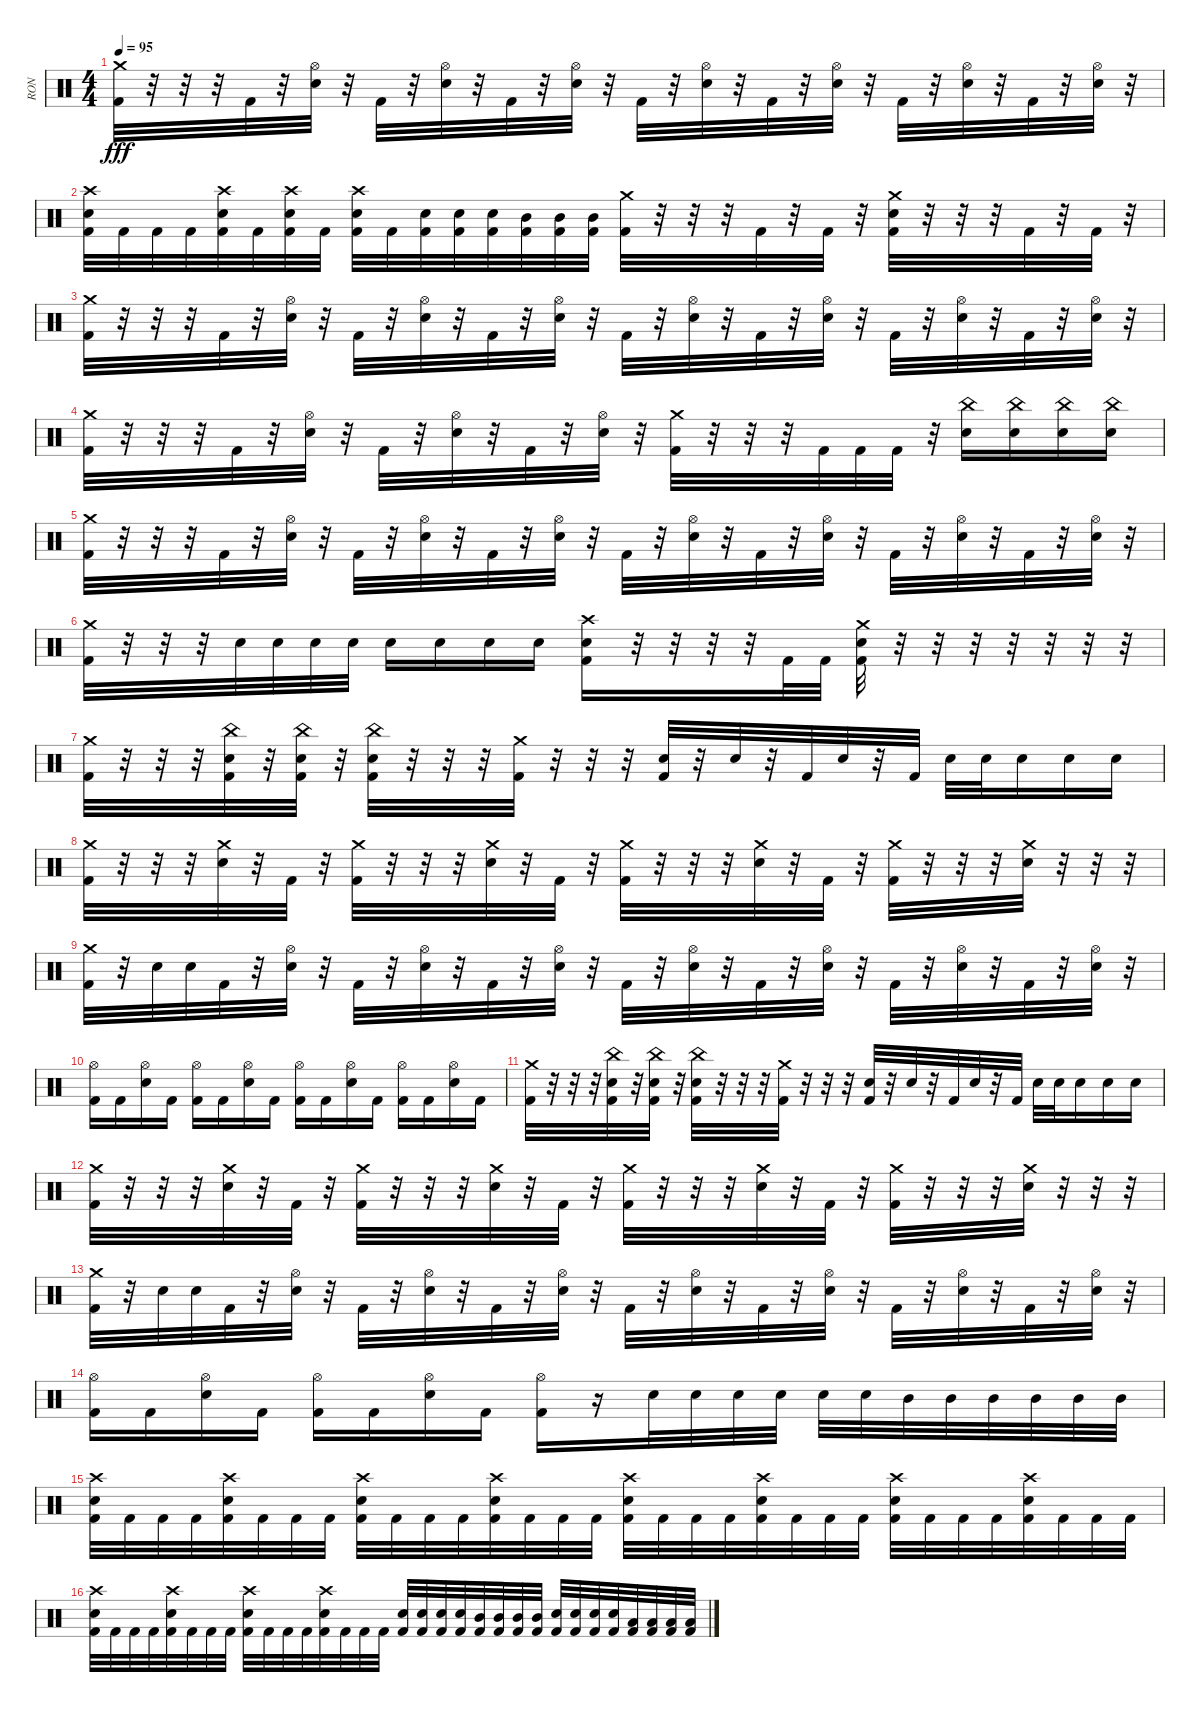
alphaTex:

\track ("RON" "RON") {instrument percussion}
\staff {score}
\articulation defaults
\ts (4 4)
\tempo 95
\clef neutral
\ks c
("Crash medium (hit)" "Kick (hit) 2").32{dy fff} r.32 r.32 r.32 "Kick (hit) 2".32 r.32 ("Hi-Hat (open)" "Electric Snare (hit)").32 r.32 "Kick (hit) 2".32 r.32 ("Hi-Hat (open)" "Electric Snare (hit)").32 r.32 "Kick (hit) 2".32 r.32 ("Hi-Hat (open)" "Electric Snare (hit)").32 r.32 "Kick (hit) 2".32 r.32 ("Hi-Hat (open)" "Electric Snare (hit)").32 r.32 "Kick (hit) 2".32 r.32 ("Hi-Hat (open)" "Electric Snare (hit)").32 r.32 "Kick (hit) 2".32 r.32 ("Hi-Hat (open)" "Electric Snare (hit)").32 r.32 "Kick (hit) 2".32 r.32 ("Hi-Hat (open)" "Electric Snare (hit)").32 r.32 |
("Crash high (hit)" "Electric Snare (hit)" "Kick (hit) 2").32 "Kick (hit) 2".32 "Kick (hit) 2".32 "Kick (hit) 2".32 ("Crash high (hit)" "Electric Snare (hit)" "Kick (hit) 2").32 "Kick (hit) 2".32 ("Crash high (hit)" "Electric Snare (hit)" "Kick (hit) 2").32 "Kick (hit) 2".32 ("Crash high (hit)" "Electric Snare (hit)" "Kick (hit) 2").32 "Kick (hit) 2".32 ("Electric Snare (hit)" "Kick (hit) 2").32 ("Electric Snare (hit)" "Kick (hit) 2").32 ("Electric Snare (hit)" "Kick (hit) 2").32 ("Mid Tom (hit)" "Kick (hit) 2").32 ("Mid Tom (hit)" "Kick (hit) 2").32 ("Mid Tom (hit)" "Kick (hit) 2").32 ("Crash medium (hit)" "Kick (hit) 2").32 r.32 r.32 r.32 "Kick (hit) 2".32 r.32 "Kick (hit) 2".32 r.32 ("Crash medium (hit)" "Electric Snare (hit)" "Kick (hit) 2").32 r.32 r.32 r.32 "Kick (hit) 2".32 r.32 "Kick (hit) 2".32 r.32 |
("Crash medium (hit)" "Kick (hit) 2").32 r.32 r.32 r.32 "Kick (hit) 2".32 r.32 ("Hi-Hat (open)" "Electric Snare (hit)").32 r.32 "Kick (hit) 2".32 r.32 ("Hi-Hat (open)" "Electric Snare (hit)").32 r.32 "Kick (hit) 2".32 r.32 ("Hi-Hat (open)" "Electric Snare (hit)").32 r.32 "Kick (hit) 2".32 r.32 ("Hi-Hat (open)" "Electric Snare (hit)").32 r.32 "Kick (hit) 2".32 r.32 ("Hi-Hat (open)" "Electric Snare (hit)").32 r.32 "Kick (hit) 2".32 r.32 ("Hi-Hat (open)" "Electric Snare (hit)").32 r.32 "Kick (hit) 2".32 r.32 ("Hi-Hat (open)" "Electric Snare (hit)").32 r.32 |
("Crash medium (hit)" "Kick (hit) 2").32 r.32 r.32 r.32 "Kick (hit) 2".32 r.32 ("Hi-Hat (open)" "Electric Snare (hit)").32 r.32 "Kick (hit) 2".32 r.32 ("Hi-Hat (open)" "Electric Snare (hit)").32 r.32 "Kick (hit) 2".32 r.32 ("Hi-Hat (open)" "Electric Snare (hit)").32 r.32 ("Crash medium (hit)" "Kick (hit) 2").32 r.32 r.32 r.32 "Kick (hit) 2".32 "Kick (hit) 2".32 "Kick (hit) 2".32 r.32 ("China (hit)" "Electric Snare (hit)").16 ("China (hit)" "Electric Snare (hit)").16 ("China (hit)" "Electric Snare (hit)").16 ("China (hit)" "Electric Snare (hit)").16 |
("Crash medium (hit)" "Kick (hit) 2").32 r.32 r.32 r.32 "Kick (hit) 2".32 r.32 ("Hi-Hat (open)" "Electric Snare (hit)").32 r.32 "Kick (hit) 2".32 r.32 ("Hi-Hat (open)" "Electric Snare (hit)").32 r.32 "Kick (hit) 2".32 r.32 ("Hi-Hat (open)" "Electric Snare (hit)").32 r.32 "Kick (hit) 2".32 r.32 ("Hi-Hat (open)" "Electric Snare (hit)").32 r.32 "Kick (hit) 2".32 r.32 ("Hi-Hat (open)" "Electric Snare (hit)").32 r.32 "Kick (hit) 2".32 r.32 ("Hi-Hat (open)" "Electric Snare (hit)").32 r.32 "Kick (hit) 2".32 r.32 ("Hi-Hat (open)" "Electric Snare (hit)").32 r.32 |
("Crash medium (hit)" "Kick (hit) 2").32 r.32 r.32 r.32 "Electric Snare (hit)".32 "Electric Snare (hit)".32 "Electric Snare (hit)".32 "Electric Snare (hit)".32 "Electric Snare (hit)".16 "Electric Snare (hit)".16 "Electric Snare (hit)".16 "Electric Snare (hit)".16 ("Crash high (hit)" "Electric Snare (hit)" "Kick (hit) 2").16 r.32 r.32 r.32 r.32 "Kick (hit) 2".32 "Kick (hit) 2".32 ("Crash medium (hit)" "Electric Snare (hit)" "Kick (hit) 2").32 r.32 r.32 r.32 r.32 r.32 r.32 r.32 |
("Crash medium (hit)" "Kick (hit) 2").32 r.32 r.32 r.32 ("China (hit)" "Electric Snare (hit)" "Kick (hit) 2").32 r.32 ("China (hit)" "Electric Snare (hit)" "Kick (hit) 2").32 r.32 ("China (hit)" "Electric Snare (hit)" "Kick (hit) 2").32 r.32 r.32 r.32 ("Crash medium (hit)" "Kick (hit) 2").32 r.32 r.32 r.32 ("Electric Snare (hit)" "Kick (hit) 2").32 r.32 "Electric Snare (hit)".32 r.32 "Kick (hit) 2".32 "Electric Snare (hit)".32 r.32 "Kick (hit) 2".32 "Electric Snare (hit)".32 "Electric Snare (hit)".32 "Electric Snare (hit)".16 "Electric Snare (hit)".16 "Electric Snare (hit)".16 |
("Crash medium (hit)" "Kick (hit) 2").32 r.32 r.32 r.32 ("Crash medium (hit)" "Electric Snare (hit)").32 r.32 "Kick (hit) 2".32 r.32 ("Crash medium (hit)" "Kick (hit) 2").32 r.32 r.32 r.32 ("Crash medium (hit)" "Electric Snare (hit)").32 r.32 "Kick (hit) 2".32 r.32 ("Crash medium (hit)" "Kick (hit) 2").32 r.32 r.32 r.32 ("Crash medium (hit)" "Electric Snare (hit)").32 r.32 "Kick (hit) 2".32 r.32 ("Crash medium (hit)" "Kick (hit) 2").32 r.32 r.32 r.32 ("Crash medium (hit)" "Electric Snare (hit)").32 r.32 r.32 r.32 |
("Crash medium (hit)" "Kick (hit) 2").32 r.32 "Electric Snare (hit)".32 "Electric Snare (hit)".32 "Kick (hit) 2".32 r.32 ("Hi-Hat (open)" "Electric Snare (hit)").32 r.32 "Kick (hit) 2".32 r.32 ("Hi-Hat (open)" "Electric Snare (hit)").32 r.32 "Kick (hit) 2".32 r.32 ("Hi-Hat (open)" "Electric Snare (hit)").32 r.32 "Kick (hit) 2".32 r.32 ("Hi-Hat (open)" "Electric Snare (hit)").32 r.32 "Kick (hit) 2".32 r.32 ("Hi-Hat (open)" "Electric Snare (hit)").32 r.32 "Kick (hit) 2".32 r.32 ("Hi-Hat (open)" "Electric Snare (hit)").32 r.32 "Kick (hit) 2".32 r.32 ("Hi-Hat (open)" "Electric Snare (hit)").32 r.32 |
("Hi-Hat (open)" "Kick (hit) 2").16 "Kick (hit) 2".16 ("Hi-Hat (open)" "Electric Snare (hit)").16 "Kick (hit) 2".16 ("Hi-Hat (open)" "Kick (hit) 2").16 "Kick (hit) 2".16 ("Hi-Hat (open)" "Electric Snare (hit)").16 "Kick (hit) 2".16 ("Hi-Hat (open)" "Kick (hit) 2").16 "Kick (hit) 2".16 ("Hi-Hat (open)" "Electric Snare (hit)").16 "Kick (hit) 2".16 ("Hi-Hat (open)" "Kick (hit) 2").16 "Kick (hit) 2".16 ("Hi-Hat (open)" "Electric Snare (hit)").16 "Kick (hit) 2".16 |
("Crash medium (hit)" "Kick (hit) 2").32 r.32 r.32 r.32 ("China (hit)" "Electric Snare (hit)" "Kick (hit) 2").32 r.32 ("China (hit)" "Electric Snare (hit)" "Kick (hit) 2").32 r.32 ("China (hit)" "Electric Snare (hit)" "Kick (hit) 2").32 r.32 r.32 r.32 ("Crash medium (hit)" "Kick (hit) 2").32 r.32 r.32 r.32 ("Electric Snare (hit)" "Kick (hit) 2").32 r.32 "Electric Snare (hit)".32 r.32 "Kick (hit) 2".32 "Electric Snare (hit)".32 r.32 "Kick (hit) 2".32 "Electric Snare (hit)".32 "Electric Snare (hit)".32 "Electric Snare (hit)".16 "Electric Snare (hit)".16 "Electric Snare (hit)".16 |
("Crash medium (hit)" "Kick (hit) 2").32 r.32 r.32 r.32 ("Crash medium (hit)" "Electric Snare (hit)").32 r.32 "Kick (hit) 2".32 r.32 ("Crash medium (hit)" "Kick (hit) 2").32 r.32 r.32 r.32 ("Crash medium (hit)" "Electric Snare (hit)").32 r.32 "Kick (hit) 2".32 r.32 ("Crash medium (hit)" "Kick (hit) 2").32 r.32 r.32 r.32 ("Crash medium (hit)" "Electric Snare (hit)").32 r.32 "Kick (hit) 2".32 r.32 ("Crash medium (hit)" "Kick (hit) 2").32 r.32 r.32 r.32 ("Crash medium (hit)" "Electric Snare (hit)").32 r.32 r.32 r.32 |
("Crash medium (hit)" "Kick (hit) 2").32 r.32 "Electric Snare (hit)".32 "Electric Snare (hit)".32 "Kick (hit) 2".32 r.32 ("Hi-Hat (open)" "Electric Snare (hit)").32 r.32 "Kick (hit) 2".32 r.32 ("Hi-Hat (open)" "Electric Snare (hit)").32 r.32 "Kick (hit) 2".32 r.32 ("Hi-Hat (open)" "Electric Snare (hit)").32 r.32 "Kick (hit) 2".32 r.32 ("Hi-Hat (open)" "Electric Snare (hit)").32 r.32 "Kick (hit) 2".32 r.32 ("Hi-Hat (open)" "Electric Snare (hit)").32 r.32 "Kick (hit) 2".32 r.32 ("Hi-Hat (open)" "Electric Snare (hit)").32 r.32 "Kick (hit) 2".32 r.32 ("Hi-Hat (open)" "Electric Snare (hit)").32 r.32 |
("Hi-Hat (open)" "Kick (hit) 2").16 "Kick (hit) 2".16 ("Hi-Hat (open)" "Electric Snare (hit)").16 "Kick (hit) 2".16 ("Hi-Hat (open)" "Kick (hit) 2").16 "Kick (hit) 2".16 ("Hi-Hat (open)" "Electric Snare (hit)").16 "Kick (hit) 2".16 ("Hi-Hat (open)" "Kick (hit) 2").16 r.16 "Electric Snare (hit)".32 "Electric Snare (hit)".32 "Electric Snare (hit)".32 "Electric Snare (hit)".32 "Electric Snare (hit)".32 "Electric Snare (hit)".32 "Mid Tom (hit)".32 "Mid Tom (hit)".32 "Mid Tom (hit)".32 "Mid Tom (hit)".32 "Mid Tom (hit)".32 "Mid Tom (hit)".32 |
("Crash high (hit)" "Electric Snare (hit)" "Kick (hit) 2").32 "Kick (hit) 2".32 "Kick (hit) 2".32 "Kick (hit) 2".32 ("Crash high (hit)" "Electric Snare (hit)" "Kick (hit) 2").32 "Kick (hit) 2".32 "Kick (hit) 2".32 "Kick (hit) 2".32 ("Crash high (hit)" "Electric Snare (hit)" "Kick (hit) 2").32 "Kick (hit) 2".32 "Kick (hit) 2".32 "Kick (hit) 2".32 ("Crash high (hit)" "Electric Snare (hit)" "Kick (hit) 2").32 "Kick (hit) 2".32 "Kick (hit) 2".32 "Kick (hit) 2".32 ("Crash high (hit)" "Electric Snare (hit)" "Kick (hit) 2").32 "Kick (hit) 2".32 "Kick (hit) 2".32 "Kick (hit) 2".32 ("Crash high (hit)" "Electric Snare (hit)" "Kick (hit) 2").32 "Kick (hit) 2".32 "Kick (hit) 2".32 "Kick (hit) 2".32 ("Crash high (hit)" "Electric Snare (hit)" "Kick (hit) 2").32 "Kick (hit) 2".32 "Kick (hit) 2".32 "Kick (hit) 2".32 ("Crash high (hit)" "Electric Snare (hit)" "Kick (hit) 2").32 "Kick (hit) 2".32 "Kick (hit) 2".32 "Kick (hit) 2".32 |
("Crash high (hit)" "Electric Snare (hit)" "Kick (hit) 2").32 "Kick (hit) 2".32 "Kick (hit) 2".32 "Kick (hit) 2".32 ("Crash high (hit)" "Electric Snare (hit)" "Kick (hit) 2").32 "Kick (hit) 2".32 "Kick (hit) 2".32 "Kick (hit) 2".32 ("Crash high (hit)" "Electric Snare (hit)" "Kick (hit) 2").32 "Kick (hit) 2".32 "Kick (hit) 2".32 "Kick (hit) 2".32 ("Crash high (hit)" "Electric Snare (hit)" "Kick (hit) 2").32 "Kick (hit) 2".32 "Kick (hit) 2".32 "Kick (hit) 2".32 ("Electric Snare (hit)" "Kick (hit) 2").32 ("Electric Snare (hit)" "Kick (hit) 2").32 ("Electric Snare (hit)" "Kick (hit) 2").32 ("Electric Snare (hit)" "Kick (hit) 2").32 ("Mid Tom (hit)" "Kick (hit) 2").32 ("Mid Tom (hit)" "Kick (hit) 2").32 ("Mid Tom (hit)" "Kick (hit) 2").32 ("Mid Tom (hit)" "Kick (hit) 2").32 ("Electric Snare (hit)" "Kick (hit) 2").32 ("Electric Snare (hit)" "Kick (hit) 2").32 ("Electric Snare (hit)" "Kick (hit) 2").32 ("Electric Snare (hit)" "Kick (hit) 2").32 ("Low Tom (hit)" "Kick (hit) 2").32 ("Low Tom (hit)" "Kick (hit) 2").32 ("Low Tom (hit)" "Kick (hit) 2").32 ("Low Tom (hit)" "Kick (hit) 2").32
